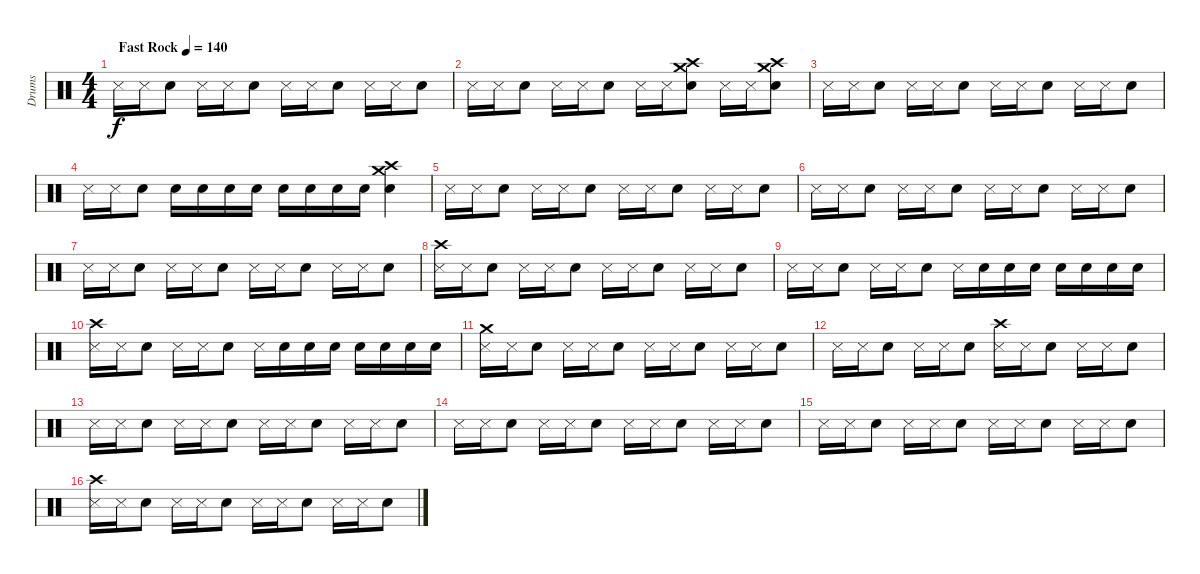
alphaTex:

\track ("Drums" "Drums") {instrument percussion}
\staff {score}
\articulation defaults
\ts (4 4)
\tempo (140 "Fast Rock")
\clef neutral
\ks c "Metronome (hit)".16{dy f} "Metronome (hit)".16 "Electric Snare (hit)".8 "Metronome (hit)".16 "Metronome (hit)".16 "Electric Snare (hit)".8 "Metronome (hit)".16 "Metronome (hit)".16 "Electric Snare (hit)".8 "Metronome (hit)".16 "Metronome (hit)".16 "Electric Snare (hit)".8
|
"Metronome (hit)".16 "Metronome (hit)".16 "Electric Snare (hit)".8 "Metronome (hit)".16 "Metronome (hit)".16 "Electric Snare (hit)".8 "Metronome (hit)".16 "Metronome (hit)".16 ("Crash medium (hit)" "Crash high (hit)" "Electric Snare (hit)").8 "Metronome (hit)".16 "Metronome (hit)".16 ("Crash medium (hit)" "Crash high (hit)" "Electric Snare (hit)").8 |
"Metronome (hit)".16 "Metronome (hit)".16 "Electric Snare (hit)".8 "Metronome (hit)".16 "Metronome (hit)".16 "Electric Snare (hit)".8 "Metronome (hit)".16 "Metronome (hit)".16 "Electric Snare (hit)".8 "Metronome (hit)".16 "Metronome (hit)".16 "Electric Snare (hit)".8 |
"Metronome (hit)".16 "Metronome (hit)".16 "Electric Snare (hit)".8 "Electric Snare (hit)".16 "Electric Snare (hit)".16 "Electric Snare (hit)".16 "Electric Snare (hit)".16 "Electric Snare (hit)".16 "Electric Snare (hit)".16 "Electric Snare (hit)".16 "Electric Snare (hit)".16 ("Crash medium (hit)" "Crash high (hit)" "Electric Snare (hit)").4 |
"Metronome (hit)".16 "Metronome (hit)".16 "Electric Snare (hit)".8 "Metronome (hit)".16 "Metronome (hit)".16 "Electric Snare (hit)".8 "Metronome (hit)".16 "Metronome (hit)".16 "Electric Snare (hit)".8 "Metronome (hit)".16 "Metronome (hit)".16 "Electric Snare (hit)".8 |
"Metronome (hit)".16 "Metronome (hit)".16 "Electric Snare (hit)".8 "Metronome (hit)".16 "Metronome (hit)".16 "Electric Snare (hit)".8 "Metronome (hit)".16 "Metronome (hit)".16 "Electric Snare (hit)".8 "Metronome (hit)".16 "Metronome (hit)".16 "Electric Snare (hit)".8 |
"Metronome (hit)".16 "Metronome (hit)".16 "Electric Snare (hit)".8 "Metronome (hit)".16 "Metronome (hit)".16 "Electric Snare (hit)".8 "Metronome (hit)".16 "Metronome (hit)".16 "Electric Snare (hit)".8 "Metronome (hit)".16 "Metronome (hit)".16 "Electric Snare (hit)".8 |
("Crash high (hit)" "Metronome (hit)").16 "Metronome (hit)".16 "Electric Snare (hit)".8 "Metronome (hit)".16 "Metronome (hit)".16 "Electric Snare (hit)".8 "Metronome (hit)".16 "Metronome (hit)".16 "Electric Snare (hit)".8 "Metronome (hit)".16 "Metronome (hit)".16 "Electric Snare (hit)".8 |
"Metronome (hit)".16 "Metronome (hit)".16 "Electric Snare (hit)".8 "Metronome (hit)".16 "Metronome (hit)".16 "Electric Snare (hit)".8 "Metronome (hit)".16 "Snare (hit) 2".16 "Snare (hit) 2".16 "Snare (hit) 2".16 "Snare (hit) 2".16 "Snare (hit) 2".16 "Snare (hit) 2".16 "Snare (hit) 2".16 |
("Crash high (hit)" "Metronome (hit)").16 "Metronome (hit)".16 "Electric Snare (hit)".8 "Metronome (hit)".16 "Metronome (hit)".16 "Electric Snare (hit)".8 "Metronome (hit)".16 "Snare (hit) 2".16 "Snare (hit) 2".16 "Snare (hit) 2".16 "Snare (hit) 2".16 "Snare (hit) 2".16 "Snare (hit) 2".16 "Snare (hit) 2".16 |
("Crash medium (hit)" "Metronome (hit)").16 "Metronome (hit)".16 "Electric Snare (hit)".8 "Metronome (hit)".16 "Metronome (hit)".16 "Electric Snare (hit)".8 "Metronome (hit)".16 "Metronome (hit)".16 "Electric Snare (hit)".8 "Metronome (hit)".16 "Metronome (hit)".16 "Electric Snare (hit)".8 |
"Metronome (hit)".16 "Metronome (hit)".16 "Electric Snare (hit)".8 "Metronome (hit)".16 "Metronome (hit)".16 "Electric Snare (hit)".8 ("Crash high (hit)" "Metronome (hit)").16 "Metronome (hit)".16 "Electric Snare (hit)".8 "Metronome (hit)".16 "Metronome (hit)".16 "Electric Snare (hit)".8 |
"Metronome (hit)".16 "Metronome (hit)".16 "Electric Snare (hit)".8 "Metronome (hit)".16 "Metronome (hit)".16 "Electric Snare (hit)".8 "Metronome (hit)".16 "Metronome (hit)".16 "Electric Snare (hit)".8 "Metronome (hit)".16 "Metronome (hit)".16 "Electric Snare (hit)".8 |
"Metronome (hit)".16 "Metronome (hit)".16 "Electric Snare (hit)".8 "Metronome (hit)".16 "Metronome (hit)".16 "Electric Snare (hit)".8 "Metronome (hit)".16 "Metronome (hit)".16 "Electric Snare (hit)".8 "Metronome (hit)".16 "Metronome (hit)".16 "Electric Snare (hit)".8 |
"Metronome (hit)".16 "Metronome (hit)".16 "Electric Snare (hit)".8 "Metronome (hit)".16 "Metronome (hit)".16 "Electric Snare (hit)".8 "Metronome (hit)".16 "Metronome (hit)".16 "Electric Snare (hit)".8 "Metronome (hit)".16 "Metronome (hit)".16 "Electric Snare (hit)".8 |
("Crash high (hit)" "Metronome (hit)").16 "Metronome (hit)".16 "Electric Snare (hit)".8 "Metronome (hit)".16 "Metronome (hit)".16 "Electric Snare (hit)".8 "Metronome (hit)".16 "Metronome (hit)".16 "Electric Snare (hit)".8 "Metronome (hit)".16 "Metronome (hit)".16 "Electric Snare (hit)".8
